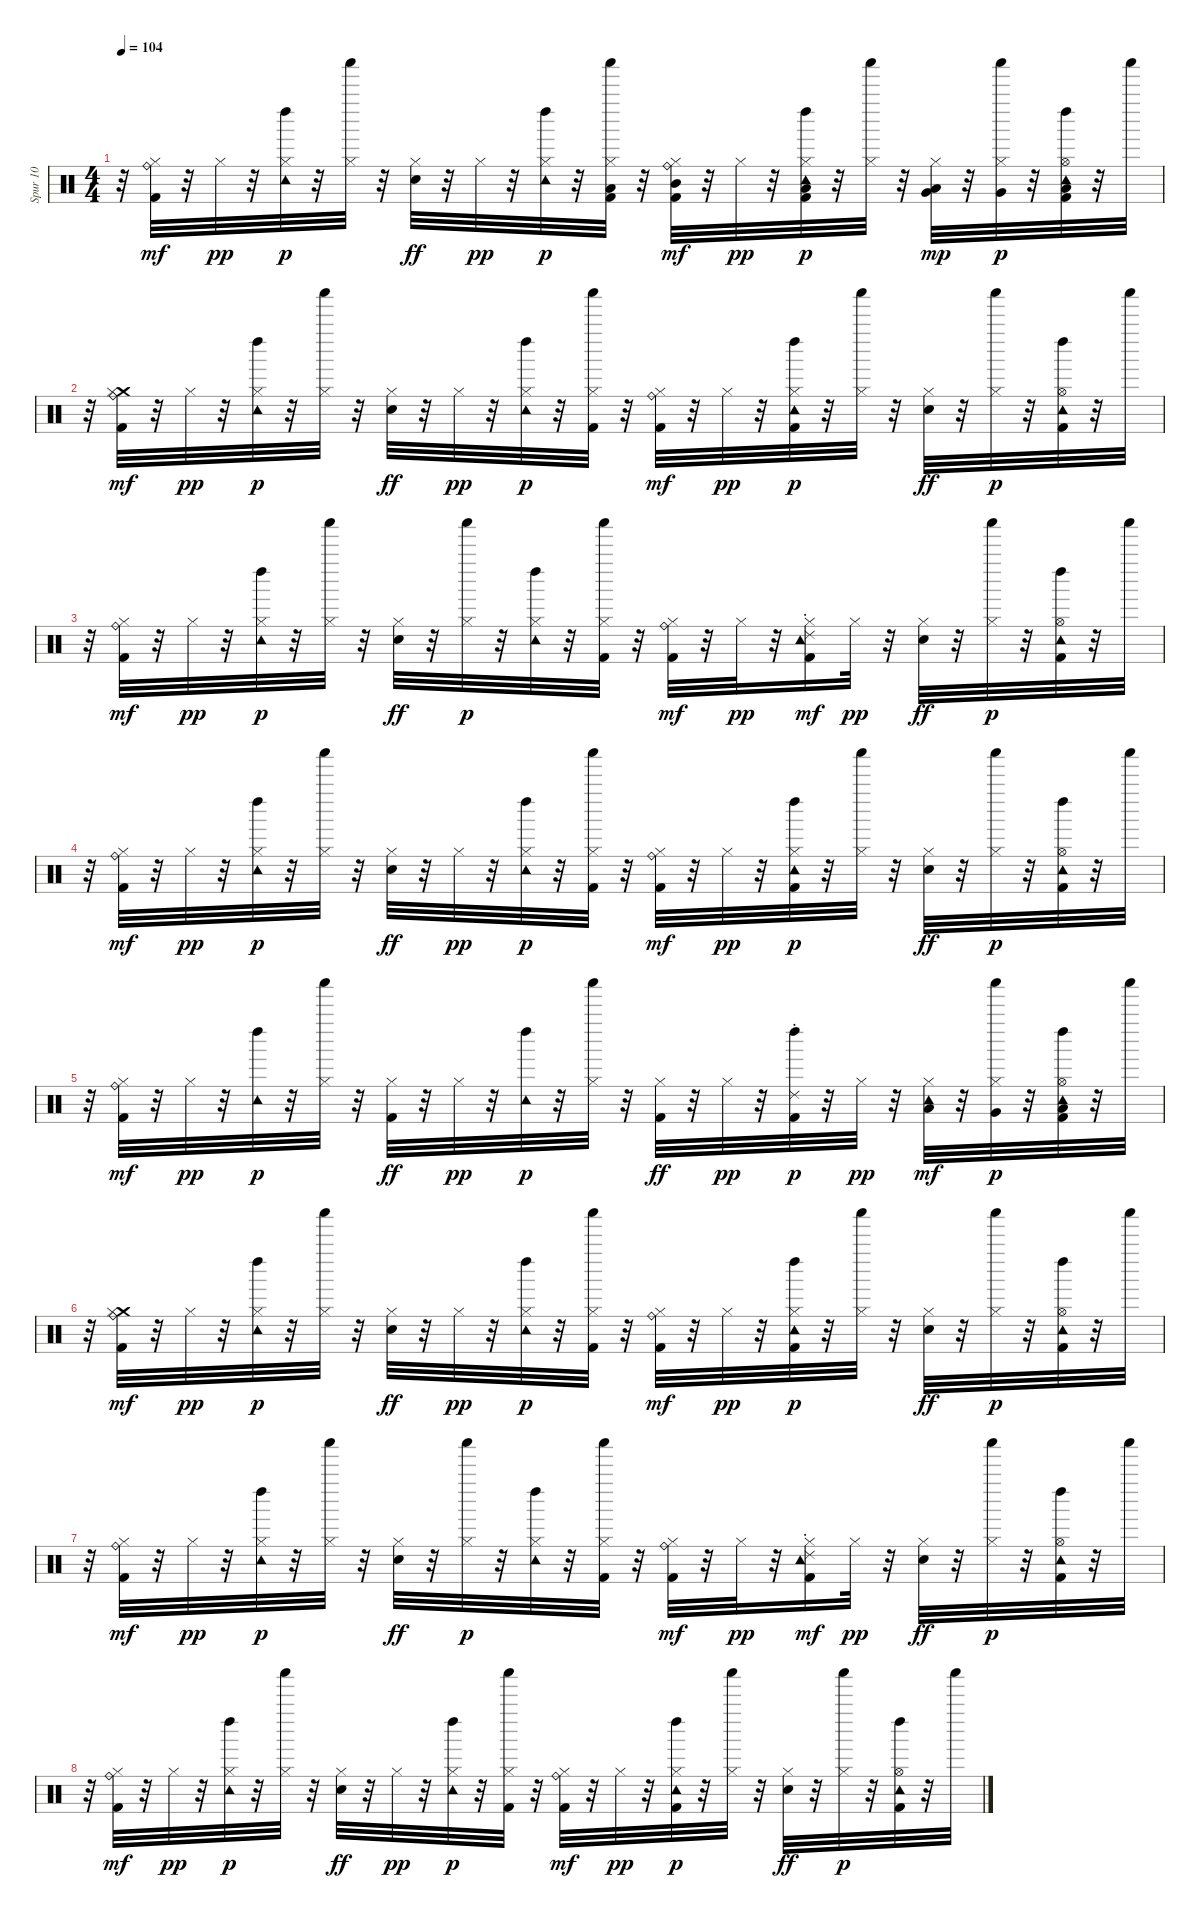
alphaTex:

\track ("Spur 10" "Spur 10") {instrument percussion}
\staff {score}
\articulation defaults
\ts (4 4)
\tempo 104
\clef neutral
\ks c
r.32{dy p} ("Hi-Hat (closed)" "Ride (bell)" "Kick (hit) 2").32{dy mf} r.32 "Hi-Hat (closed)".32{dy pp} r.32 ("Hi-Hat (closed)" "Tambourine (hit)" "Left Maraca (hit)").32{dy p} r.32 ("Hi-Hat (closed)" "Shaker (hit)").32 r.32 ("Hi-Hat (closed)" "Snare (hit) 2").32{dy ff} r.32 "Hi-Hat (closed)".32{dy pp} r.32 ("Hi-Hat (closed)" "Tambourine (hit)" "Left Maraca (hit)").32{dy p} r.32 ("Low Floor Tom (hit)" "Hi-Hat (closed)" "Kick (hit) 2" "Shaker (hit)").32 r.32 ("Hi-Hat (closed)" "Mid Tom (hit)" "Ride (bell)" "Kick (hit) 2").32{dy mf} r.32 "Hi-Hat (closed)".32{dy pp} r.32 ("Hi-Hat (closed)" "Low Tom (hit)" "Tambourine (hit)" "Kick (hit) 2" "Left Maraca (hit)").32{dy p} r.32 ("Hi-Hat (closed)" "Shaker (hit)").32 r.32 ("Hi-Hat (closed)" "Very Low Tom (hit)" "Low Tom (hit)").32{dy mp} r.32 ("Hi-Hat (closed)" "Very Low Tom (hit)" "Shaker (hit)").32{dy p} r.32 ("Low Floor Tom (hit)" "Hi-Hat (open)" "Tambourine (hit)" "Kick (hit) 2" "Left Maraca (hit)").32 r.32 "Shaker (hit)".32 |
r.32 ("Crash medium (hit)" "Hi-Hat (closed)" "Ride (bell)" "Kick (hit) 2").32{dy mf} r.32 "Hi-Hat (closed)".32{dy pp} r.32 ("Hi-Hat (closed)" "Tambourine (hit)" "Left Maraca (hit)").32{dy p} r.32 ("Hi-Hat (closed)" "Shaker (hit)").32 r.32 ("Hi-Hat (closed)" "Snare (hit) 2").32{dy ff} r.32 "Hi-Hat (closed)".32{dy pp} r.32 ("Hi-Hat (closed)" "Tambourine (hit)" "Left Maraca (hit)").32{dy p} r.32 ("Hi-Hat (closed)" "Kick (hit) 2" "Shaker (hit)").32 r.32 ("Hi-Hat (closed)" "Ride (bell)" "Kick (hit) 2").32{dy mf} r.32 "Hi-Hat (closed)".32{dy pp} r.32 ("Hi-Hat (closed)" "Tambourine (hit)" "Kick (hit) 2" "Left Maraca (hit)").32{dy p} r.32 ("Hi-Hat (closed)" "Shaker (hit)").32 r.32 ("Hi-Hat (closed)" "Snare (hit) 2").32{dy ff} r.32 ("Hi-Hat (closed)" "Shaker (hit)").32{dy p} r.32 ("Hi-Hat (open)" "Tambourine (hit)" "Kick (hit) 2" "Left Maraca (hit)").32 r.32 "Shaker (hit)".32 |
r.32 ("Hi-Hat (closed)" "Ride (bell)" "Kick (hit) 2").32{dy mf} r.32 "Hi-Hat (closed)".32{dy pp} r.32 ("Hi-Hat (closed)" "Tambourine (hit)" "Left Maraca (hit)").32{dy p} r.32 ("Hi-Hat (closed)" "Shaker (hit)").32 r.32 ("Hi-Hat (closed)" "Snare (hit) 2").32{dy ff} r.32 ("Hi-Hat (closed)" "Shaker (hit)").32{dy p} r.32 ("Hi-Hat (closed)" "Tambourine (hit)" "Left Maraca (hit)").32 r.32 ("Hi-Hat (closed)" "Kick (hit) 2" "Shaker (hit)").32 r.32 ("Hi-Hat (closed)" "Ride (bell)" "Kick (hit) 2").32{dy mf} r.32 "Hi-Hat (closed)".32{dy pp} r.32 ("Ride (choke) 2" "Hi-Hat (closed)" "Tambourine (hit)" "Kick (hit) 2").16{dy mf} "Hi-Hat (closed)".32{dy pp} r.32 ("Hi-Hat (closed)" "Snare (hit) 2").32{dy ff} r.32 ("Hi-Hat (closed)" "Shaker (hit)").32{dy p} r.32 ("Hi-Hat (open)" "Tambourine (hit)" "Kick (hit) 2" "Left Maraca (hit)").32 r.32 "Shaker (hit)".32 |
r.32 ("Hi-Hat (closed)" "Ride (bell)" "Kick (hit) 2").32{dy mf} r.32 "Hi-Hat (closed)".32{dy pp} r.32 ("Hi-Hat (closed)" "Tambourine (hit)" "Left Maraca (hit)").32{dy p} r.32 ("Hi-Hat (closed)" "Shaker (hit)").32 r.32 ("Hi-Hat (closed)" "Snare (hit) 2").32{dy ff} r.32 "Hi-Hat (closed)".32{dy pp} r.32 ("Hi-Hat (closed)" "Tambourine (hit)" "Left Maraca (hit)").32{dy p} r.32 ("Hi-Hat (closed)" "Kick (hit) 2" "Shaker (hit)").32 r.32 ("Hi-Hat (closed)" "Ride (bell)" "Kick (hit) 2").32{dy mf} r.32 "Hi-Hat (closed)".32{dy pp} r.32 ("Hi-Hat (closed)" "Tambourine (hit)" "Kick (hit) 2" "Left Maraca (hit)").32{dy p} r.32 ("Hi-Hat (closed)" "Shaker (hit)").32 r.32 ("Hi-Hat (closed)" "Snare (hit) 2").32{dy ff} r.32 ("Hi-Hat (closed)" "Shaker (hit)").32{dy p} r.32 ("Hi-Hat (open)" "Tambourine (hit)" "Kick (hit) 2" "Left Maraca (hit)").32 r.32 "Shaker (hit)".32 |
r.32 ("Hi-Hat (closed)" "Ride (bell)" "Kick (hit) 2").32{dy mf} r.32 "Hi-Hat (closed)".32{dy pp} r.32 ("Tambourine (hit)" "Left Maraca (hit)").32{dy p} r.32 ("Hi-Hat (closed)" "Shaker (hit)").32 r.32 ("Hi-Hat (closed)" "Kick (hit) 2").32{dy ff} r.32 "Hi-Hat (closed)".32{dy pp} r.32 ("Tambourine (hit)" "Left Maraca (hit)").32{dy p} r.32 ("Hi-Hat (closed)" "Shaker (hit)").32 r.32 ("Hi-Hat (closed)" "Kick (hit) 2").32{dy ff} r.32 "Hi-Hat (closed)".32{dy pp} r.32 ("Ride (choke) 2" "Kick (hit) 2" "Left Maraca (hit)").32{dy p} r.32 "Hi-Hat (closed)".32{dy pp} r.32 ("Hi-Hat (closed)" "Low Tom (hit)" "Tambourine (hit)").32{dy mf} r.32 ("Hi-Hat (closed)" "Very Low Tom (hit)" "Shaker (hit)").32{dy p} r.32 ("Low Floor Tom (hit)" "Hi-Hat (open)" "Tambourine (hit)" "Kick (hit) 2" "Left Maraca (hit)").32 r.32 "Shaker (hit)".32 |
r.32 ("Crash medium (hit)" "Hi-Hat (closed)" "Ride (bell)" "Kick (hit) 2").32{dy mf} r.32 "Hi-Hat (closed)".32{dy pp} r.32 ("Hi-Hat (closed)" "Tambourine (hit)" "Left Maraca (hit)").32{dy p} r.32 ("Hi-Hat (closed)" "Shaker (hit)").32 r.32 ("Hi-Hat (closed)" "Snare (hit) 2").32{dy ff} r.32 "Hi-Hat (closed)".32{dy pp} r.32 ("Hi-Hat (closed)" "Tambourine (hit)" "Left Maraca (hit)").32{dy p} r.32 ("Hi-Hat (closed)" "Kick (hit) 2" "Shaker (hit)").32 r.32 ("Hi-Hat (closed)" "Ride (bell)" "Kick (hit) 2").32{dy mf} r.32 "Hi-Hat (closed)".32{dy pp} r.32 ("Hi-Hat (closed)" "Tambourine (hit)" "Kick (hit) 2" "Left Maraca (hit)").32{dy p} r.32 ("Hi-Hat (closed)" "Shaker (hit)").32 r.32 ("Hi-Hat (closed)" "Snare (hit) 2").32{dy ff} r.32 ("Hi-Hat (closed)" "Shaker (hit)").32{dy p} r.32 ("Hi-Hat (open)" "Tambourine (hit)" "Kick (hit) 2" "Left Maraca (hit)").32 r.32 "Shaker (hit)".32 |
r.32 ("Hi-Hat (closed)" "Ride (bell)" "Kick (hit) 2").32{dy mf} r.32 "Hi-Hat (closed)".32{dy pp} r.32 ("Hi-Hat (closed)" "Tambourine (hit)" "Left Maraca (hit)").32{dy p} r.32 ("Hi-Hat (closed)" "Shaker (hit)").32 r.32 ("Hi-Hat (closed)" "Snare (hit) 2").32{dy ff} r.32 ("Hi-Hat (closed)" "Shaker (hit)").32{dy p} r.32 ("Hi-Hat (closed)" "Tambourine (hit)" "Left Maraca (hit)").32 r.32 ("Hi-Hat (closed)" "Kick (hit) 2" "Shaker (hit)").32 r.32 ("Hi-Hat (closed)" "Ride (bell)" "Kick (hit) 2").32{dy mf} r.32 "Hi-Hat (closed)".32{dy pp} r.32 ("Ride (choke) 2" "Hi-Hat (closed)" "Tambourine (hit)" "Kick (hit) 2").16{dy mf} "Hi-Hat (closed)".32{dy pp} r.32 ("Hi-Hat (closed)" "Snare (hit) 2").32{dy ff} r.32 ("Hi-Hat (closed)" "Shaker (hit)").32{dy p} r.32 ("Hi-Hat (open)" "Tambourine (hit)" "Kick (hit) 2" "Left Maraca (hit)").32 r.32 "Shaker (hit)".32 |
r.32 ("Hi-Hat (closed)" "Ride (bell)" "Kick (hit) 2").32{dy mf} r.32 "Hi-Hat (closed)".32{dy pp} r.32 ("Hi-Hat (closed)" "Tambourine (hit)" "Left Maraca (hit)").32{dy p} r.32 ("Hi-Hat (closed)" "Shaker (hit)").32 r.32 ("Hi-Hat (closed)" "Snare (hit) 2").32{dy ff} r.32 "Hi-Hat (closed)".32{dy pp} r.32 ("Hi-Hat (closed)" "Tambourine (hit)" "Left Maraca (hit)").32{dy p} r.32 ("Hi-Hat (closed)" "Kick (hit) 2" "Shaker (hit)").32 r.32 ("Hi-Hat (closed)" "Ride (bell)" "Kick (hit) 2").32{dy mf} r.32 "Hi-Hat (closed)".32{dy pp} r.32 ("Hi-Hat (closed)" "Tambourine (hit)" "Kick (hit) 2" "Left Maraca (hit)").32{dy p} r.32 ("Hi-Hat (closed)" "Shaker (hit)").32 r.32 ("Hi-Hat (closed)" "Snare (hit) 2").32{dy ff} r.32 ("Hi-Hat (closed)" "Shaker (hit)").32{dy p} r.32 ("Hi-Hat (open)" "Tambourine (hit)" "Kick (hit) 2" "Left Maraca (hit)").32 r.32 "Shaker (hit)".32
